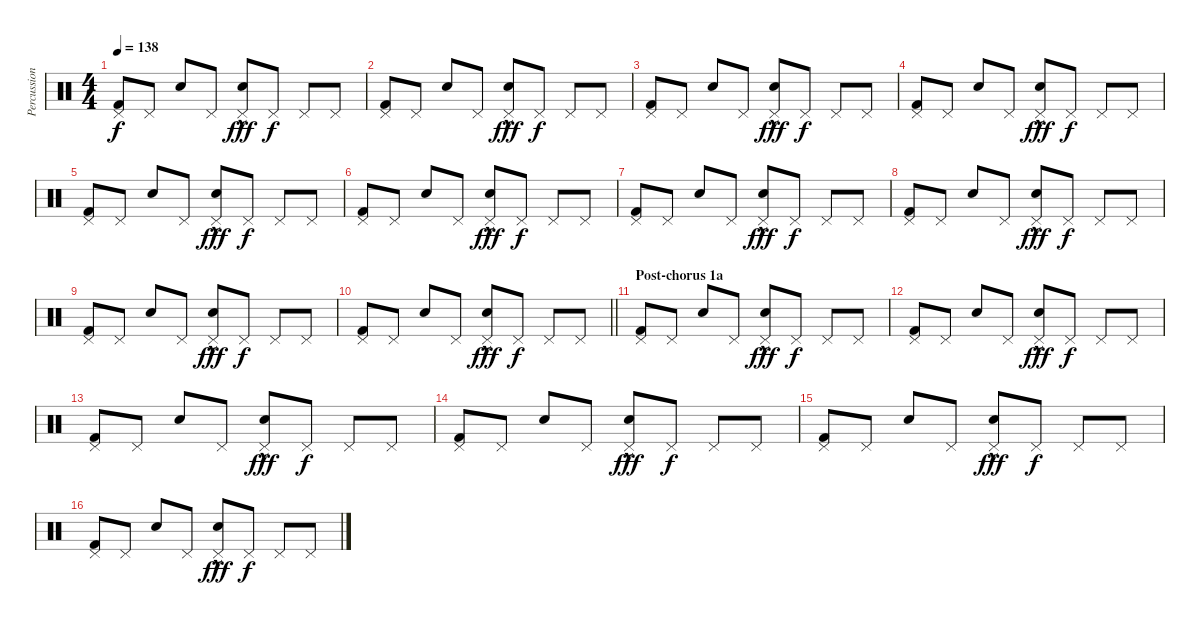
\track ("Percussion" "Percussion") {instrument percussion}
\staff {score}
\articulation defaults
\ts (4 4)
\tempo 138
\clef neutral
\ks c
("Kick (hit) 2" "Pedal Hi-Hat (hit)").8{dy f} "Pedal Hi-Hat (hit)".8 "Snare (hit)".8 "Pedal Hi-Hat (hit)".8 ("Snare (hit) 2"{hac} "Pedal Hi-Hat (hit)").8{dy fff} "Pedal Hi-Hat (hit)".8{dy f} "Pedal Hi-Hat (hit)".8 "Pedal Hi-Hat (hit)".8 |
("Kick (hit) 2" "Pedal Hi-Hat (hit)").8 "Pedal Hi-Hat (hit)".8 "Snare (hit)".8 "Pedal Hi-Hat (hit)".8 ("Snare (hit) 2"{hac} "Pedal Hi-Hat (hit)").8{dy fff} "Pedal Hi-Hat (hit)".8{dy f} "Pedal Hi-Hat (hit)".8 "Pedal Hi-Hat (hit)".8 |
("Kick (hit) 2" "Pedal Hi-Hat (hit)").8 "Pedal Hi-Hat (hit)".8 "Snare (hit)".8 "Pedal Hi-Hat (hit)".8 ("Snare (hit) 2"{hac} "Pedal Hi-Hat (hit)").8{dy fff} "Pedal Hi-Hat (hit)".8{dy f} "Pedal Hi-Hat (hit)".8 "Pedal Hi-Hat (hit)".8 |
("Kick (hit) 2" "Pedal Hi-Hat (hit)").8 "Pedal Hi-Hat (hit)".8 "Snare (hit)".8 "Pedal Hi-Hat (hit)".8 ("Snare (hit) 2"{hac} "Pedal Hi-Hat (hit)").8{dy fff} "Pedal Hi-Hat (hit)".8{dy f} "Pedal Hi-Hat (hit)".8 "Pedal Hi-Hat (hit)".8 |
("Kick (hit) 2" "Pedal Hi-Hat (hit)").8 "Pedal Hi-Hat (hit)".8 "Snare (hit)".8 "Pedal Hi-Hat (hit)".8 ("Snare (hit) 2"{hac} "Pedal Hi-Hat (hit)").8{dy fff} "Pedal Hi-Hat (hit)".8{dy f} "Pedal Hi-Hat (hit)".8 "Pedal Hi-Hat (hit)".8 |
("Kick (hit) 2" "Pedal Hi-Hat (hit)").8 "Pedal Hi-Hat (hit)".8 "Snare (hit)".8 "Pedal Hi-Hat (hit)".8 ("Snare (hit) 2"{hac} "Pedal Hi-Hat (hit)").8{dy fff} "Pedal Hi-Hat (hit)".8{dy f} "Pedal Hi-Hat (hit)".8 "Pedal Hi-Hat (hit)".8 |
("Kick (hit) 2" "Pedal Hi-Hat (hit)").8 "Pedal Hi-Hat (hit)".8 "Snare (hit)".8 "Pedal Hi-Hat (hit)".8 ("Snare (hit) 2"{hac} "Pedal Hi-Hat (hit)").8{dy fff} "Pedal Hi-Hat (hit)".8{dy f} "Pedal Hi-Hat (hit)".8 "Pedal Hi-Hat (hit)".8 |
("Kick (hit) 2" "Pedal Hi-Hat (hit)").8 "Pedal Hi-Hat (hit)".8 "Snare (hit)".8 "Pedal Hi-Hat (hit)".8 ("Snare (hit) 2"{hac} "Pedal Hi-Hat (hit)").8{dy fff} "Pedal Hi-Hat (hit)".8{dy f} "Pedal Hi-Hat (hit)".8 "Pedal Hi-Hat (hit)".8 |
("Kick (hit) 2" "Pedal Hi-Hat (hit)").8 "Pedal Hi-Hat (hit)".8 "Snare (hit)".8 "Pedal Hi-Hat (hit)".8 ("Snare (hit) 2"{hac} "Pedal Hi-Hat (hit)").8{dy fff} "Pedal Hi-Hat (hit)".8{dy f} "Pedal Hi-Hat (hit)".8 "Pedal Hi-Hat (hit)".8 |
\barLineRight lightlight
("Kick (hit) 2" "Pedal Hi-Hat (hit)").8 "Pedal Hi-Hat (hit)".8 "Snare (hit)".8 "Pedal Hi-Hat (hit)".8 ("Snare (hit) 2"{hac} "Pedal Hi-Hat (hit)").8{dy fff} "Pedal Hi-Hat (hit)".8{dy f} "Pedal Hi-Hat (hit)".8 "Pedal Hi-Hat (hit)".8 |
\section ("" "Post-chorus 1a")
("Kick (hit) 2" "Pedal Hi-Hat (hit)").8 "Pedal Hi-Hat (hit)".8 "Snare (hit)".8 "Pedal Hi-Hat (hit)".8 ("Snare (hit) 2"{hac} "Pedal Hi-Hat (hit)").8{dy fff} "Pedal Hi-Hat (hit)".8{dy f} "Pedal Hi-Hat (hit)".8 "Pedal Hi-Hat (hit)".8 |
("Kick (hit) 2" "Pedal Hi-Hat (hit)").8 "Pedal Hi-Hat (hit)".8 "Snare (hit)".8 "Pedal Hi-Hat (hit)".8 ("Snare (hit) 2"{hac} "Pedal Hi-Hat (hit)").8{dy fff} "Pedal Hi-Hat (hit)".8{dy f} "Pedal Hi-Hat (hit)".8 "Pedal Hi-Hat (hit)".8 |
("Kick (hit) 2" "Pedal Hi-Hat (hit)").8 "Pedal Hi-Hat (hit)".8 "Snare (hit)".8 "Pedal Hi-Hat (hit)".8 ("Snare (hit) 2"{hac} "Pedal Hi-Hat (hit)").8{dy fff} "Pedal Hi-Hat (hit)".8{dy f} "Pedal Hi-Hat (hit)".8 "Pedal Hi-Hat (hit)".8 |
("Kick (hit) 2" "Pedal Hi-Hat (hit)").8 "Pedal Hi-Hat (hit)".8 "Snare (hit)".8 "Pedal Hi-Hat (hit)".8 ("Snare (hit) 2"{hac} "Pedal Hi-Hat (hit)").8{dy fff} "Pedal Hi-Hat (hit)".8{dy f} "Pedal Hi-Hat (hit)".8 "Pedal Hi-Hat (hit)".8 |
("Kick (hit) 2" "Pedal Hi-Hat (hit)").8 "Pedal Hi-Hat (hit)".8 "Snare (hit)".8 "Pedal Hi-Hat (hit)".8 ("Snare (hit) 2"{hac} "Pedal Hi-Hat (hit)").8{dy fff} "Pedal Hi-Hat (hit)".8{dy f} "Pedal Hi-Hat (hit)".8 "Pedal Hi-Hat (hit)".8 |
("Kick (hit) 2" "Pedal Hi-Hat (hit)").8 "Pedal Hi-Hat (hit)".8 "Snare (hit)".8 "Pedal Hi-Hat (hit)".8 ("Snare (hit) 2"{hac} "Pedal Hi-Hat (hit)").8{dy fff} "Pedal Hi-Hat (hit)".8{dy f} "Pedal Hi-Hat (hit)".8 "Pedal Hi-Hat (hit)".8
